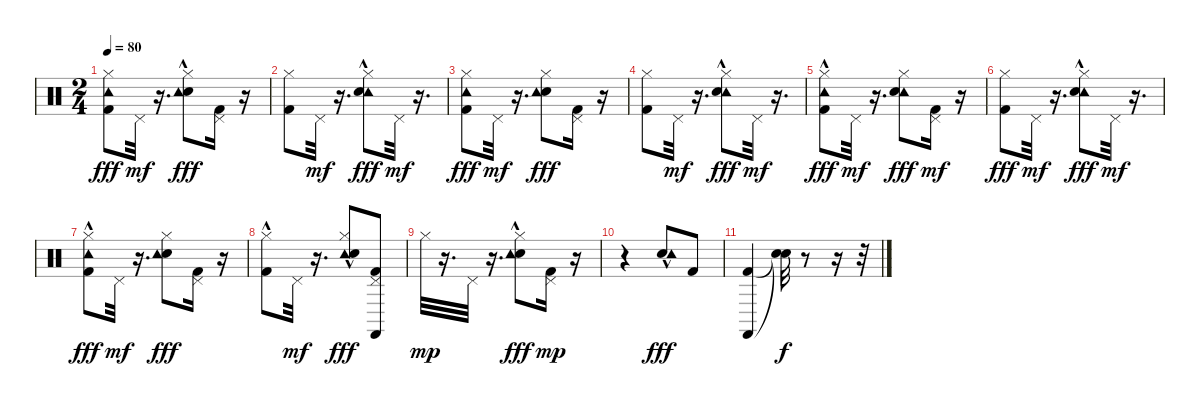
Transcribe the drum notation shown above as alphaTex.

\track "" {instrument percussion}
\staff {score}
\articulation defaults
\ts (2 4)
\tempo 80
\clef neutral
\ks c
("Hi-Hat (closed)" "Kick (hit) 2" "Tambourine (hit)").8{dy fff} "Pedal Hi-Hat (hit)".32{dy mf} r.16{d} ("Hi-Hat (closed)" "Snare (hit) 2" "Tambourine (hit)"{hac}).8{dy fff} ("Pedal Hi-Hat (hit)" "Kick (hit) 2").16 r.16 |
("Hi-Hat (closed)" "Kick (hit) 2").8 "Pedal Hi-Hat (hit)".32{dy mf} r.16{d} ("Tambourine (hit)" "Hi-Hat (closed)" "Snare (hit) 2"{hac}).8{dy fff} "Pedal Hi-Hat (hit)".32{dy mf} r.16{d} |
("Kick (hit) 2" "Hi-Hat (closed)" "Tambourine (hit)").8{dy fff} "Pedal Hi-Hat (hit)".32{dy mf} r.16{d} ("Snare (hit) 2" "Hi-Hat (closed)" "Tambourine (hit)").8{dy fff} ("Pedal Hi-Hat (hit)" "Kick (hit) 2").16 r.16 |
("Hi-Hat (closed)" "Kick (hit) 2").8 "Pedal Hi-Hat (hit)".32{dy mf} r.16{d} ("Tambourine (hit)"{hac} "Hi-Hat (closed)" "Snare (hit) 2"{hac}).8{dy fff} "Pedal Hi-Hat (hit)".32{dy mf} r.16{d} |
("Hi-Hat (closed)" "Kick (hit) 2" "Tambourine (hit)"{hac}).8{dy fff} "Pedal Hi-Hat (hit)".32{dy mf} r.16{d} ("Tambourine (hit)" "Hi-Hat (closed)" "Snare (hit) 2").8{dy fff} ("Kick (hit) 2" "Pedal Hi-Hat (hit)").16{dy mf} r.16 |
("Hi-Hat (closed)" "Kick (hit) 2").8{dy fff} "Pedal Hi-Hat (hit)".32{dy mf} r.16{d} ("Tambourine (hit)"{hac} "Hi-Hat (closed)" "Snare (hit) 2").8{dy fff} "Pedal Hi-Hat (hit)".32{dy mf} r.16{d} |
("Hi-Hat (closed)" "Kick (hit) 2" "Tambourine (hit)"{hac}).8{dy fff} "Pedal Hi-Hat (hit)".32{dy mf} r.16{d} ("Hi-Hat (closed)" "Snare (hit) 2" "Tambourine (hit)").8{dy fff} ("Pedal Hi-Hat (hit)" "Kick (hit) 2").16 r.16 |
("Hi-Hat (closed)" "Kick (hit) 2"{hac}).8 "Pedal Hi-Hat (hit)".32{dy mf} r.16{d} ("Tambourine (hit)"{hac} "Hi-Hat (closed)" "Snare (hit) 2"{hac}).8{dy fff} ("Pedal Hi-Hat (hit)" "Kick (hit) 2" "Castanets (hit)").8 |
"Hi-Hat (closed)".32{dy mp} r.16{d} "Pedal Hi-Hat (hit)".32 r.16{d} ("Hi-Hat (closed)" "Snare (hit) 2" "Tambourine (hit)"{hac}).8{dy fff} ("Kick (hit) 2" "Pedal Hi-Hat (hit)").16{dy mp} r.16 |
r.4 ("Snare (hit) 2" "Tambourine (hit)"{hac}).8{dy fff} "Kick (hit) 2".8 |
("Castanets (hit)" "Kick (hit) 2").4 ("Snare (hit)"{t} "Snare (hit)"{t}).32{dy f} r.8 r.16 r.32
